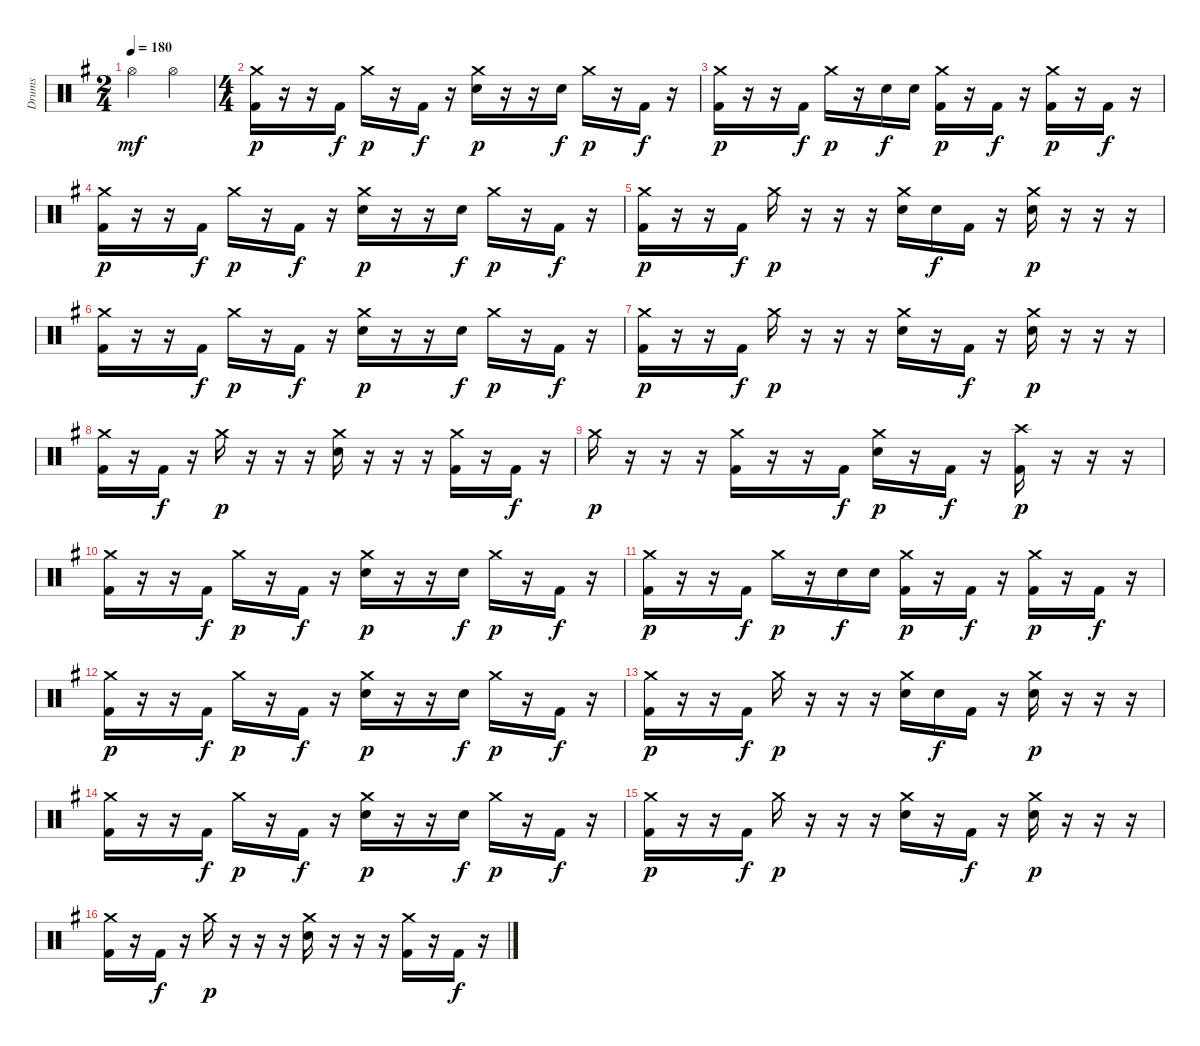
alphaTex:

\track ("Drums" "Drums") {instrument percussion}
\staff {score}
\articulation defaults
\ts (2 4)
\tempo 180
\clef neutral
\ks g "Hi-Hat (open)".4{dy mf} "Hi-Hat (open)".4
|
\ts (4 4)
("Crash medium (hit)" "Kick (hit) 2").16{dy p} r.16 r.16 "Kick (hit) 2".16{dy f} "Crash medium (hit)".16{dy p} r.16 "Kick (hit) 2".16{dy f} r.16 ("Crash medium (hit)" "Snare (hit) 2").16{dy p} r.16 r.16 "Snare (hit) 2".16{dy f} "Crash medium (hit)".16{dy p} r.16 "Kick (hit) 2".16{dy f} r.16 |
("Crash medium (hit)" "Kick (hit) 2").16{dy p} r.16 r.16 "Kick (hit) 2".16{dy f} "Crash medium (hit)".16{dy p} r.16 "Snare (hit) 2".16{dy f} "Snare (hit) 2".16 ("Crash medium (hit)" "Kick (hit) 2").16{dy p} r.16 "Kick (hit) 2".16{dy f} r.16 ("Crash medium (hit)" "Kick (hit) 2").16{dy p} r.16 "Kick (hit) 2".16{dy f} r.16 |
("Crash medium (hit)" "Kick (hit) 2").16{dy p} r.16 r.16 "Kick (hit) 2".16{dy f} "Crash medium (hit)".16{dy p} r.16 "Kick (hit) 2".16{dy f} r.16 ("Crash medium (hit)" "Snare (hit) 2").16{dy p} r.16 r.16 "Snare (hit) 2".16{dy f} "Crash medium (hit)".16{dy p} r.16 "Kick (hit) 2".16{dy f} r.16 |
("Crash medium (hit)" "Kick (hit) 2").16{dy p} r.16 r.16 "Kick (hit) 2".16{dy f} "Crash medium (hit)".16{dy p} r.16 r.16 r.16 ("Crash medium (hit)" "Snare (hit) 2").16 "Snare (hit) 2".16{dy f} "Kick (hit) 2".16 r.16 ("Crash medium (hit)" "Snare (hit) 2").16{dy p} r.16 r.16 r.16 |
("Crash medium (hit)" "Kick (hit) 2").16 r.16 r.16 "Kick (hit) 2".16{dy f} "Crash medium (hit)".16{dy p} r.16 "Kick (hit) 2".16{dy f} r.16 ("Crash medium (hit)" "Snare (hit) 2").16{dy p} r.16 r.16 "Snare (hit) 2".16{dy f} "Crash medium (hit)".16{dy p} r.16 "Kick (hit) 2".16{dy f} r.16 |
("Crash medium (hit)" "Kick (hit) 2").16{dy p} r.16 r.16 "Kick (hit) 2".16{dy f} "Crash medium (hit)".16{dy p} r.16 r.16 r.16 ("Crash medium (hit)" "Snare (hit) 2").16 r.16 "Kick (hit) 2".16{dy f} r.16 ("Crash medium (hit)" "Snare (hit) 2").16{dy p} r.16 r.16 r.16 |
("Crash medium (hit)" "Kick (hit) 2").16 r.16 "Kick (hit) 2".16{dy f} r.16 "Crash medium (hit)".16{dy p} r.16 r.16 r.16 ("Crash medium (hit)" "Snare (hit) 2").16 r.16 r.16 r.16 ("Crash medium (hit)" "Kick (hit) 2").16 r.16 "Kick (hit) 2".16{dy f} r.16 |
"Crash medium (hit)".16{dy p} r.16 r.16 r.16 ("Crash medium (hit)" "Kick (hit) 2").16 r.16 r.16 "Kick (hit) 2".16{dy f} ("Crash medium (hit)" "Snare (hit) 2").16{dy p} r.16 "Kick (hit) 2".16{dy f} r.16 ("Crash high (hit)" "Kick (hit) 2").16{dy p} r.16 r.16 r.16 |
("Crash medium (hit)" "Kick (hit) 2").16 r.16 r.16 "Kick (hit) 2".16{dy f} "Crash medium (hit)".16{dy p} r.16 "Kick (hit) 2".16{dy f} r.16 ("Crash medium (hit)" "Snare (hit) 2").16{dy p} r.16 r.16 "Snare (hit) 2".16{dy f} "Crash medium (hit)".16{dy p} r.16 "Kick (hit) 2".16{dy f} r.16 |
("Crash medium (hit)" "Kick (hit) 2").16{dy p} r.16 r.16 "Kick (hit) 2".16{dy f} "Crash medium (hit)".16{dy p} r.16 "Snare (hit) 2".16{dy f} "Snare (hit) 2".16 ("Crash medium (hit)" "Kick (hit) 2").16{dy p} r.16 "Kick (hit) 2".16{dy f} r.16 ("Crash medium (hit)" "Kick (hit) 2").16{dy p} r.16 "Kick (hit) 2".16{dy f} r.16 |
("Crash medium (hit)" "Kick (hit) 2").16{dy p} r.16 r.16 "Kick (hit) 2".16{dy f} "Crash medium (hit)".16{dy p} r.16 "Kick (hit) 2".16{dy f} r.16 ("Crash medium (hit)" "Snare (hit) 2").16{dy p} r.16 r.16 "Snare (hit) 2".16{dy f} "Crash medium (hit)".16{dy p} r.16 "Kick (hit) 2".16{dy f} r.16 |
("Crash medium (hit)" "Kick (hit) 2").16{dy p} r.16 r.16 "Kick (hit) 2".16{dy f} "Crash medium (hit)".16{dy p} r.16 r.16 r.16 ("Crash medium (hit)" "Snare (hit) 2").16 "Snare (hit) 2".16{dy f} "Kick (hit) 2".16 r.16 ("Crash medium (hit)" "Snare (hit) 2").16{dy p} r.16 r.16 r.16 |
("Crash medium (hit)" "Kick (hit) 2").16 r.16 r.16 "Kick (hit) 2".16{dy f} "Crash medium (hit)".16{dy p} r.16 "Kick (hit) 2".16{dy f} r.16 ("Crash medium (hit)" "Snare (hit) 2").16{dy p} r.16 r.16 "Snare (hit) 2".16{dy f} "Crash medium (hit)".16{dy p} r.16 "Kick (hit) 2".16{dy f} r.16 |
("Crash medium (hit)" "Kick (hit) 2").16{dy p} r.16 r.16 "Kick (hit) 2".16{dy f} "Crash medium (hit)".16{dy p} r.16 r.16 r.16 ("Crash medium (hit)" "Snare (hit) 2").16 r.16 "Kick (hit) 2".16{dy f} r.16 ("Crash medium (hit)" "Snare (hit) 2").16{dy p} r.16 r.16 r.16 |
("Crash medium (hit)" "Kick (hit) 2").16 r.16 "Kick (hit) 2".16{dy f} r.16 "Crash medium (hit)".16{dy p} r.16 r.16 r.16 ("Crash medium (hit)" "Snare (hit) 2").16 r.16 r.16 r.16 ("Crash medium (hit)" "Kick (hit) 2").16 r.16 "Kick (hit) 2".16{dy f} r.16
